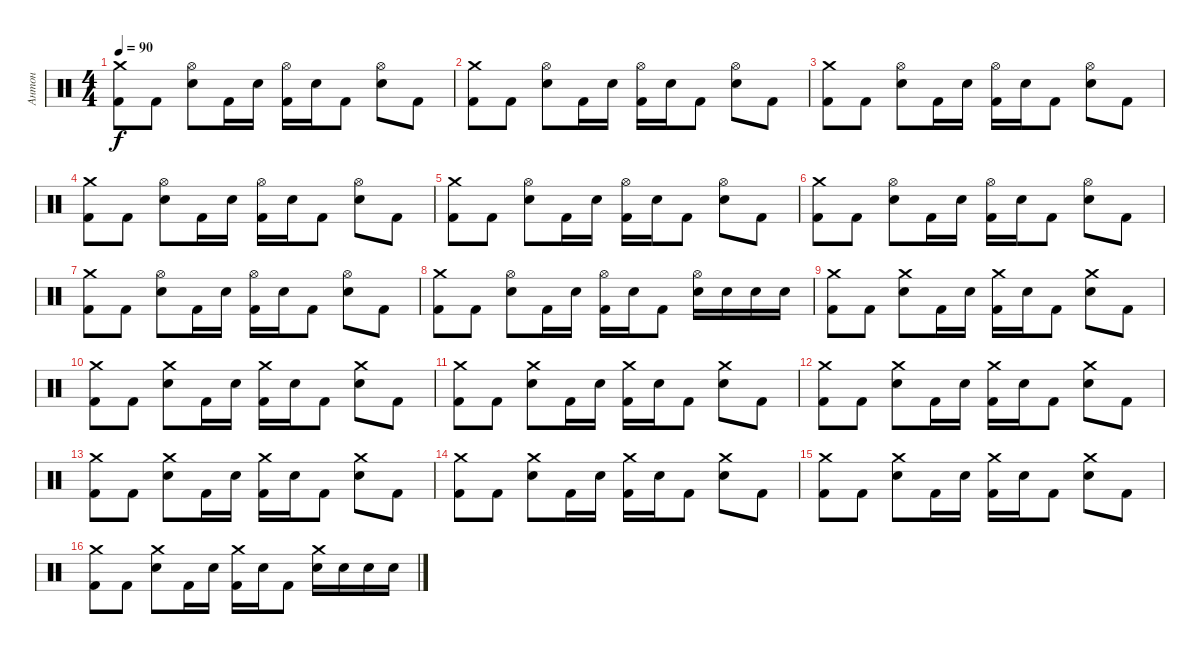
\track ("Антон" "Антон") {instrument percussion}
\staff {score}
\articulation defaults
\ts (4 4)
\tempo 90
\clef neutral
\ks c
("Crash medium (hit)" "Kick (hit) 2").8{dy f} "Kick (hit) 2".8 ("Hi-Hat (open)" "Electric Snare (hit)").8 "Kick (hit) 2".16 "Electric Snare (hit)".16 ("Hi-Hat (open)" "Kick (hit) 2").16 "Electric Snare (hit)".16 "Kick (hit) 2".8 ("Hi-Hat (open)" "Electric Snare (hit)").8 "Kick (hit) 2".8 |
("Crash medium (hit)" "Kick (hit) 2").8 "Kick (hit) 2".8 ("Hi-Hat (open)" "Electric Snare (hit)").8 "Kick (hit) 2".16 "Electric Snare (hit)".16 ("Hi-Hat (open)" "Kick (hit) 2").16 "Electric Snare (hit)".16 "Kick (hit) 2".8 ("Hi-Hat (open)" "Electric Snare (hit)").8 "Kick (hit) 2".8 |
("Crash medium (hit)" "Kick (hit) 2").8 "Kick (hit) 2".8 ("Hi-Hat (open)" "Electric Snare (hit)").8 "Kick (hit) 2".16 "Electric Snare (hit)".16 ("Hi-Hat (open)" "Kick (hit) 2").16 "Electric Snare (hit)".16 "Kick (hit) 2".8 ("Hi-Hat (open)" "Electric Snare (hit)").8 "Kick (hit) 2".8 |
("Crash medium (hit)" "Kick (hit) 2").8 "Kick (hit) 2".8 ("Hi-Hat (open)" "Electric Snare (hit)").8 "Kick (hit) 2".16 "Electric Snare (hit)".16 ("Hi-Hat (open)" "Kick (hit) 2").16 "Electric Snare (hit)".16 "Kick (hit) 2".8 ("Hi-Hat (open)" "Electric Snare (hit)").8 "Kick (hit) 2".8 |
("Crash medium (hit)" "Kick (hit) 2").8 "Kick (hit) 2".8 ("Hi-Hat (open)" "Electric Snare (hit)").8 "Kick (hit) 2".16 "Electric Snare (hit)".16 ("Hi-Hat (open)" "Kick (hit) 2").16 "Electric Snare (hit)".16 "Kick (hit) 2".8 ("Hi-Hat (open)" "Electric Snare (hit)").8 "Kick (hit) 2".8 |
("Crash medium (hit)" "Kick (hit) 2").8 "Kick (hit) 2".8 ("Hi-Hat (open)" "Electric Snare (hit)").8 "Kick (hit) 2".16 "Electric Snare (hit)".16 ("Hi-Hat (open)" "Kick (hit) 2").16 "Electric Snare (hit)".16 "Kick (hit) 2".8 ("Hi-Hat (open)" "Electric Snare (hit)").8 "Kick (hit) 2".8 |
("Crash medium (hit)" "Kick (hit) 2").8 "Kick (hit) 2".8 ("Hi-Hat (open)" "Electric Snare (hit)").8 "Kick (hit) 2".16 "Electric Snare (hit)".16 ("Hi-Hat (open)" "Kick (hit) 2").16 "Electric Snare (hit)".16 "Kick (hit) 2".8 ("Hi-Hat (open)" "Electric Snare (hit)").8 "Kick (hit) 2".8 |
("Crash medium (hit)" "Kick (hit) 2").8 "Kick (hit) 2".8 ("Hi-Hat (open)" "Electric Snare (hit)").8 "Kick (hit) 2".16 "Electric Snare (hit)".16 ("Hi-Hat (open)" "Kick (hit) 2").16 "Electric Snare (hit)".16 "Kick (hit) 2".8 ("Hi-Hat (open)" "Electric Snare (hit)").16 "Electric Snare (hit)".16 "Electric Snare (hit)".16 "Electric Snare (hit)".16 |
("Crash medium (hit)" "Kick (hit) 2").8 "Kick (hit) 2".8 ("Crash medium (hit)" "Electric Snare (hit)").8 "Kick (hit) 2".16 "Electric Snare (hit)".16 ("Crash medium (hit)" "Kick (hit) 2").16 "Electric Snare (hit)".16 "Kick (hit) 2".8 ("Crash medium (hit)" "Electric Snare (hit)").8 "Kick (hit) 2".8 |
("Crash medium (hit)" "Kick (hit) 2").8 "Kick (hit) 2".8 ("Crash medium (hit)" "Electric Snare (hit)").8 "Kick (hit) 2".16 "Electric Snare (hit)".16 ("Crash medium (hit)" "Kick (hit) 2").16 "Electric Snare (hit)".16 "Kick (hit) 2".8 ("Crash medium (hit)" "Electric Snare (hit)").8 "Kick (hit) 2".8 |
("Crash medium (hit)" "Kick (hit) 2").8 "Kick (hit) 2".8 ("Crash medium (hit)" "Electric Snare (hit)").8 "Kick (hit) 2".16 "Electric Snare (hit)".16 ("Crash medium (hit)" "Kick (hit) 2").16 "Electric Snare (hit)".16 "Kick (hit) 2".8 ("Crash medium (hit)" "Electric Snare (hit)").8 "Kick (hit) 2".8 |
("Crash medium (hit)" "Kick (hit) 2").8 "Kick (hit) 2".8 ("Crash medium (hit)" "Electric Snare (hit)").8 "Kick (hit) 2".16 "Electric Snare (hit)".16 ("Crash medium (hit)" "Kick (hit) 2").16 "Electric Snare (hit)".16 "Kick (hit) 2".8 ("Crash medium (hit)" "Electric Snare (hit)").8 "Kick (hit) 2".8 |
("Crash medium (hit)" "Kick (hit) 2").8 "Kick (hit) 2".8 ("Crash medium (hit)" "Electric Snare (hit)").8 "Kick (hit) 2".16 "Electric Snare (hit)".16 ("Crash medium (hit)" "Kick (hit) 2").16 "Electric Snare (hit)".16 "Kick (hit) 2".8 ("Crash medium (hit)" "Electric Snare (hit)").8 "Kick (hit) 2".8 |
("Crash medium (hit)" "Kick (hit) 2").8 "Kick (hit) 2".8 ("Crash medium (hit)" "Electric Snare (hit)").8 "Kick (hit) 2".16 "Electric Snare (hit)".16 ("Crash medium (hit)" "Kick (hit) 2").16 "Electric Snare (hit)".16 "Kick (hit) 2".8 ("Crash medium (hit)" "Electric Snare (hit)").8 "Kick (hit) 2".8 |
("Crash medium (hit)" "Kick (hit) 2").8 "Kick (hit) 2".8 ("Crash medium (hit)" "Electric Snare (hit)").8 "Kick (hit) 2".16 "Electric Snare (hit)".16 ("Crash medium (hit)" "Kick (hit) 2").16 "Electric Snare (hit)".16 "Kick (hit) 2".8 ("Crash medium (hit)" "Electric Snare (hit)").8 "Kick (hit) 2".8 |
("Crash medium (hit)" "Kick (hit) 2").8 "Kick (hit) 2".8 ("Crash medium (hit)" "Electric Snare (hit)").8 "Kick (hit) 2".16 "Electric Snare (hit)".16 ("Crash medium (hit)" "Kick (hit) 2").16 "Electric Snare (hit)".16 "Kick (hit) 2".8 ("Crash medium (hit)" "Electric Snare (hit)").16 "Electric Snare (hit)".16 "Electric Snare (hit)".16 "Electric Snare (hit)".16
